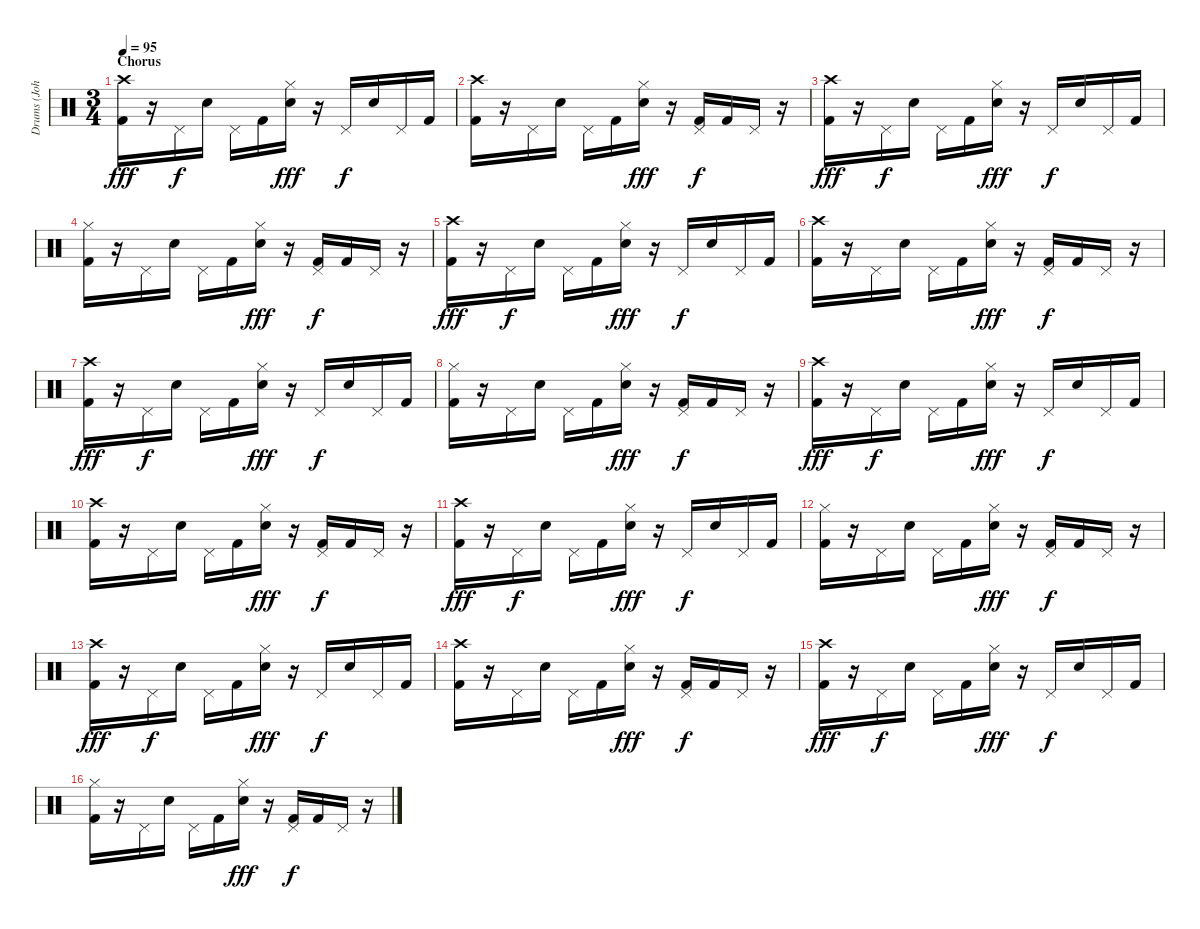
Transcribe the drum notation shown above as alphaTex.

\track ("Drums (John Otto)" "Drums (Joh") {instrument percussion}
\staff {score}
\articulation defaults
\ts (3 4)
\section ("" "Chorus")
\tempo 95
\clef neutral
\ks c
("Crash high (hit)" "Kick (hit) 2").16{dy fff} r.16 "Pedal Hi-Hat (hit)".16{dy f} "Electric Snare (hit)".16 "Pedal Hi-Hat (hit)".16 "Kick (hit) 2".16 ("Hi-Hat (closed)" "Electric Snare (hit)").16{dy fff} r.16 "Pedal Hi-Hat (hit)".16{dy f} "Electric Snare (hit)".16 "Pedal Hi-Hat (hit)".16 "Kick (hit) 2".16 |
("Crash high (hit)" "Kick (hit) 2").16 r.16 "Pedal Hi-Hat (hit)".16 "Electric Snare (hit)".16 "Pedal Hi-Hat (hit)".16 "Kick (hit) 2".16 ("Hi-Hat (closed)" "Electric Snare (hit)").16{dy fff} r.16 ("Pedal Hi-Hat (hit)" "Kick (hit) 2").16{dy f} "Kick (hit) 2".16 "Pedal Hi-Hat (hit)".16 r.16 |
("Crash high (hit)" "Kick (hit) 2").16{dy fff} r.16 "Pedal Hi-Hat (hit)".16{dy f} "Electric Snare (hit)".16 "Pedal Hi-Hat (hit)".16 "Kick (hit) 2".16 ("Hi-Hat (closed)" "Electric Snare (hit)").16{dy fff} r.16 "Pedal Hi-Hat (hit)".16{dy f} "Electric Snare (hit)".16 "Pedal Hi-Hat (hit)".16 "Kick (hit) 2".16 |
("Hi-Hat (closed)" "Kick (hit) 2").16 r.16 "Pedal Hi-Hat (hit)".16 "Electric Snare (hit)".16 "Pedal Hi-Hat (hit)".16 "Kick (hit) 2".16 ("Hi-Hat (closed)" "Electric Snare (hit)").16{dy fff} r.16 ("Pedal Hi-Hat (hit)" "Kick (hit) 2").16{dy f} "Kick (hit) 2".16 "Pedal Hi-Hat (hit)".16 r.16 |
("Crash high (hit)" "Kick (hit) 2").16{dy fff} r.16 "Pedal Hi-Hat (hit)".16{dy f} "Electric Snare (hit)".16 "Pedal Hi-Hat (hit)".16 "Kick (hit) 2".16 ("Hi-Hat (closed)" "Electric Snare (hit)").16{dy fff} r.16 "Pedal Hi-Hat (hit)".16{dy f} "Electric Snare (hit)".16 "Pedal Hi-Hat (hit)".16 "Kick (hit) 2".16 |
("Crash high (hit)" "Kick (hit) 2").16 r.16 "Pedal Hi-Hat (hit)".16 "Electric Snare (hit)".16 "Pedal Hi-Hat (hit)".16 "Kick (hit) 2".16 ("Hi-Hat (closed)" "Electric Snare (hit)").16{dy fff} r.16 ("Pedal Hi-Hat (hit)" "Kick (hit) 2").16{dy f} "Kick (hit) 2".16 "Pedal Hi-Hat (hit)".16 r.16 |
("Crash high (hit)" "Kick (hit) 2").16{dy fff} r.16 "Pedal Hi-Hat (hit)".16{dy f} "Electric Snare (hit)".16 "Pedal Hi-Hat (hit)".16 "Kick (hit) 2".16 ("Hi-Hat (closed)" "Electric Snare (hit)").16{dy fff} r.16 "Pedal Hi-Hat (hit)".16{dy f} "Electric Snare (hit)".16 "Pedal Hi-Hat (hit)".16 "Kick (hit) 2".16 |
("Hi-Hat (closed)" "Kick (hit) 2").16 r.16 "Pedal Hi-Hat (hit)".16 "Electric Snare (hit)".16 "Pedal Hi-Hat (hit)".16 "Kick (hit) 2".16 ("Hi-Hat (closed)" "Electric Snare (hit)").16{dy fff} r.16 ("Pedal Hi-Hat (hit)" "Kick (hit) 2").16{dy f} "Kick (hit) 2".16 "Pedal Hi-Hat (hit)".16 r.16 |
("Crash high (hit)" "Kick (hit) 2").16{dy fff} r.16 "Pedal Hi-Hat (hit)".16{dy f} "Electric Snare (hit)".16 "Pedal Hi-Hat (hit)".16 "Kick (hit) 2".16 ("Hi-Hat (closed)" "Electric Snare (hit)").16{dy fff} r.16 "Pedal Hi-Hat (hit)".16{dy f} "Electric Snare (hit)".16 "Pedal Hi-Hat (hit)".16 "Kick (hit) 2".16 |
("Crash high (hit)" "Kick (hit) 2").16 r.16 "Pedal Hi-Hat (hit)".16 "Electric Snare (hit)".16 "Pedal Hi-Hat (hit)".16 "Kick (hit) 2".16 ("Hi-Hat (closed)" "Electric Snare (hit)").16{dy fff} r.16 ("Pedal Hi-Hat (hit)" "Kick (hit) 2").16{dy f} "Kick (hit) 2".16 "Pedal Hi-Hat (hit)".16 r.16 |
("Crash high (hit)" "Kick (hit) 2").16{dy fff} r.16 "Pedal Hi-Hat (hit)".16{dy f} "Electric Snare (hit)".16 "Pedal Hi-Hat (hit)".16 "Kick (hit) 2".16 ("Hi-Hat (closed)" "Electric Snare (hit)").16{dy fff} r.16 "Pedal Hi-Hat (hit)".16{dy f} "Electric Snare (hit)".16 "Pedal Hi-Hat (hit)".16 "Kick (hit) 2".16 |
("Hi-Hat (closed)" "Kick (hit) 2").16 r.16 "Pedal Hi-Hat (hit)".16 "Electric Snare (hit)".16 "Pedal Hi-Hat (hit)".16 "Kick (hit) 2".16 ("Hi-Hat (closed)" "Electric Snare (hit)").16{dy fff} r.16 ("Pedal Hi-Hat (hit)" "Kick (hit) 2").16{dy f} "Kick (hit) 2".16 "Pedal Hi-Hat (hit)".16 r.16 |
("Crash high (hit)" "Kick (hit) 2").16{dy fff} r.16 "Pedal Hi-Hat (hit)".16{dy f} "Electric Snare (hit)".16 "Pedal Hi-Hat (hit)".16 "Kick (hit) 2".16 ("Hi-Hat (closed)" "Electric Snare (hit)").16{dy fff} r.16 "Pedal Hi-Hat (hit)".16{dy f} "Electric Snare (hit)".16 "Pedal Hi-Hat (hit)".16 "Kick (hit) 2".16 |
("Crash high (hit)" "Kick (hit) 2").16 r.16 "Pedal Hi-Hat (hit)".16 "Electric Snare (hit)".16 "Pedal Hi-Hat (hit)".16 "Kick (hit) 2".16 ("Hi-Hat (closed)" "Electric Snare (hit)").16{dy fff} r.16 ("Pedal Hi-Hat (hit)" "Kick (hit) 2").16{dy f} "Kick (hit) 2".16 "Pedal Hi-Hat (hit)".16 r.16 |
("Crash high (hit)" "Kick (hit) 2").16{dy fff} r.16 "Pedal Hi-Hat (hit)".16{dy f} "Electric Snare (hit)".16 "Pedal Hi-Hat (hit)".16 "Kick (hit) 2".16 ("Hi-Hat (closed)" "Electric Snare (hit)").16{dy fff} r.16 "Pedal Hi-Hat (hit)".16{dy f} "Electric Snare (hit)".16 "Pedal Hi-Hat (hit)".16 "Kick (hit) 2".16 |
("Hi-Hat (closed)" "Kick (hit) 2").16 r.16 "Pedal Hi-Hat (hit)".16 "Electric Snare (hit)".16 "Pedal Hi-Hat (hit)".16 "Kick (hit) 2".16 ("Hi-Hat (closed)" "Electric Snare (hit)").16{dy fff} r.16 ("Pedal Hi-Hat (hit)" "Kick (hit) 2").16{dy f} "Kick (hit) 2".16 "Pedal Hi-Hat (hit)".16 r.16
